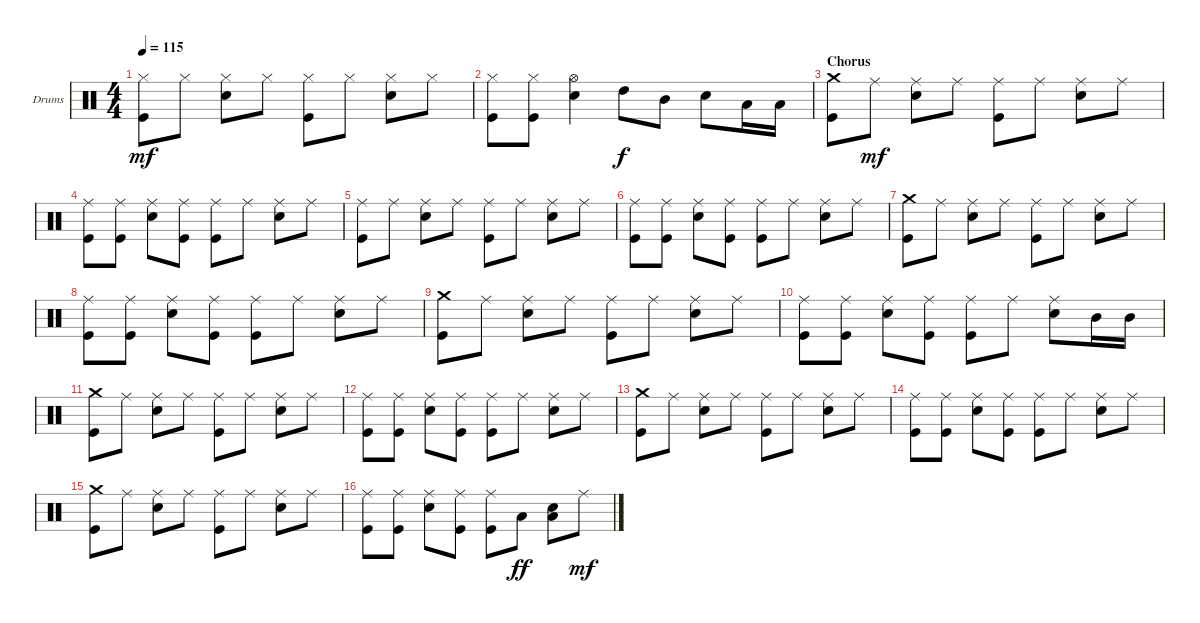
\defaultSystemsLayout 4
\bracketExtendMode groupsimilarinstruments
\firstSystemTrackNameOrientation horizontal
\otherSystemsTrackNameOrientation horizontal
\track ("Drumkit (Curt Cress)" "Drums") {instrument percussion}
\staff {score}
\articulation defaults
\ts (4 4)
\tempo 115
\clef neutral
\scale
1.02648
\ks c
("Kick (hit)" "Hi-Hat (closed)").8{dy mf} "Hi-Hat (closed)".8 ("Hi-Hat (closed)" "Snare (hit) 2").8 "Hi-Hat (closed)".8 ("Hi-Hat (closed)" "Kick (hit)").8 "Hi-Hat (closed)".8 ("Hi-Hat (closed)" "Snare (hit) 2").8 "Hi-Hat (closed)".8 |
\scale
0.973518 ("Kick (hit)" "Hi-Hat (closed)").8 ("Hi-Hat (closed)" "Kick (hit)").8 ("Hi-Hat (open)" "Snare (hit) 2").4 "High Tom (hit)".8{dy f} "Mid Tom (hit)".8 "Snare (hit) 2".8 "Low Tom (hit)".16 "Low Tom (hit)".16 |
\section ("" "Chorus")
\scale
1.02648 ("Kick (hit)" "Crash medium (hit)").8 "Ride (middle)".8{dy mf} ("Snare (hit) 2" "Ride (middle)").8 "Ride (middle)".8 ("Kick (hit)" "Ride (middle)").8 "Ride (middle)".8 ("Snare (hit) 2" "Ride (middle)").8 "Ride (middle)".8 |
\scale
0.973518 ("Kick (hit)" "Ride (middle)").8 ("Kick (hit)" "Ride (middle)").8 ("Snare (hit) 2" "Ride (middle)").8 ("Kick (hit)" "Ride (middle)").8 ("Kick (hit)" "Ride (middle)").8 "Ride (middle)".8 ("Snare (hit) 2" "Ride (middle)").8 "Ride (middle)".8 |
\scale
1.02648 ("Kick (hit)" "Ride (middle)").8 "Ride (middle)".8 ("Snare (hit) 2" "Ride (middle)").8 "Ride (middle)".8 ("Kick (hit)" "Ride (middle)").8 "Ride (middle)".8 ("Snare (hit) 2" "Ride (middle)").8 "Ride (middle)".8 |
\scale
0.973518 ("Kick (hit)" "Ride (middle)").8 ("Kick (hit)" "Ride (middle)").8 ("Snare (hit) 2" "Ride (middle)").8 ("Kick (hit)" "Ride (middle)").8 ("Kick (hit)" "Ride (middle)").8 "Ride (middle)".8 ("Snare (hit) 2" "Ride (middle)").8 "Ride (middle)".8 |
\scale
1.02648 ("Kick (hit)" "Crash medium (hit)").8 "Ride (middle)".8 ("Snare (hit) 2" "Ride (middle)").8 "Ride (middle)".8 ("Kick (hit)" "Ride (middle)").8 "Ride (middle)".8 ("Snare (hit) 2" "Ride (middle)").8 "Ride (middle)".8 |
\scale
0.973518 ("Kick (hit)" "Ride (middle)").8 ("Kick (hit)" "Ride (middle)").8 ("Snare (hit) 2" "Ride (middle)").8 ("Kick (hit)" "Ride (middle)").8 ("Kick (hit)" "Ride (middle)").8 "Ride (middle)".8 ("Snare (hit) 2" "Ride (middle)").8 "Ride (middle)".8 |
\scale
1.02648 ("Kick (hit)" "Crash medium (hit)").8 "Ride (middle)".8 ("Snare (hit) 2" "Ride (middle)").8 "Ride (middle)".8 ("Kick (hit)" "Ride (middle)").8 "Ride (middle)".8 ("Snare (hit) 2" "Ride (middle)").8 "Ride (middle)".8 |
\scale
0.973518 ("Kick (hit)" "Ride (middle)").8 ("Kick (hit)" "Ride (middle)").8 ("Snare (hit) 2" "Ride (middle)").8 ("Kick (hit)" "Ride (middle)").8 ("Kick (hit)" "Ride (middle)").8 "Ride (middle)".8 ("Snare (hit) 2" "Ride (middle)").8 "Mid Tom (hit)".16 "Mid Tom (hit)".16 |
\scale
1.02648 ("Kick (hit)" "Crash medium (hit)").8 "Ride (middle)".8 ("Snare (hit) 2" "Ride (middle)").8 "Ride (middle)".8 ("Kick (hit)" "Ride (middle)").8 "Ride (middle)".8 ("Snare (hit) 2" "Ride (middle)").8 "Ride (middle)".8 |
\scale
0.973518 ("Kick (hit)" "Ride (middle)").8 ("Kick (hit)" "Ride (middle)").8 ("Snare (hit) 2" "Ride (middle)").8 ("Kick (hit)" "Ride (middle)").8 ("Kick (hit)" "Ride (middle)").8 "Ride (middle)".8 ("Snare (hit) 2" "Ride (middle)").8 "Ride (middle)".8 |
\scale
1.02648 ("Kick (hit)" "Crash medium (hit)").8 "Ride (middle)".8 ("Snare (hit) 2" "Ride (middle)").8 "Ride (middle)".8 ("Kick (hit)" "Ride (middle)").8 "Ride (middle)".8 ("Snare (hit) 2" "Ride (middle)").8 "Ride (middle)".8 |
\scale
0.973518 ("Kick (hit)" "Ride (middle)").8 ("Kick (hit)" "Ride (middle)").8 ("Snare (hit) 2" "Ride (middle)").8 ("Kick (hit)" "Ride (middle)").8 ("Kick (hit)" "Ride (middle)").8 "Ride (middle)".8 ("Snare (hit) 2" "Ride (middle)").8 "Ride (middle)".8 |
\scale
1.02648 ("Kick (hit)" "Crash medium (hit)").8 "Ride (middle)".8 ("Snare (hit) 2" "Ride (middle)").8 "Ride (middle)".8 ("Kick (hit)" "Ride (middle)").8 "Ride (middle)".8 ("Snare (hit) 2" "Ride (middle)").8 "Ride (middle)".8 |
\scale
0.973518 ("Kick (hit)" "Ride (middle)").8 ("Kick (hit)" "Ride (middle)").8 ("Snare (hit) 2" "Ride (middle)").8 ("Kick (hit)" "Ride (middle)").8 ("Kick (hit)" "Ride (middle)").8 "Low Tom (hit)".8{dy ff} ("Snare (hit) 2" "Low Tom (hit)").8 "Ride (middle)".8{dy mf}
